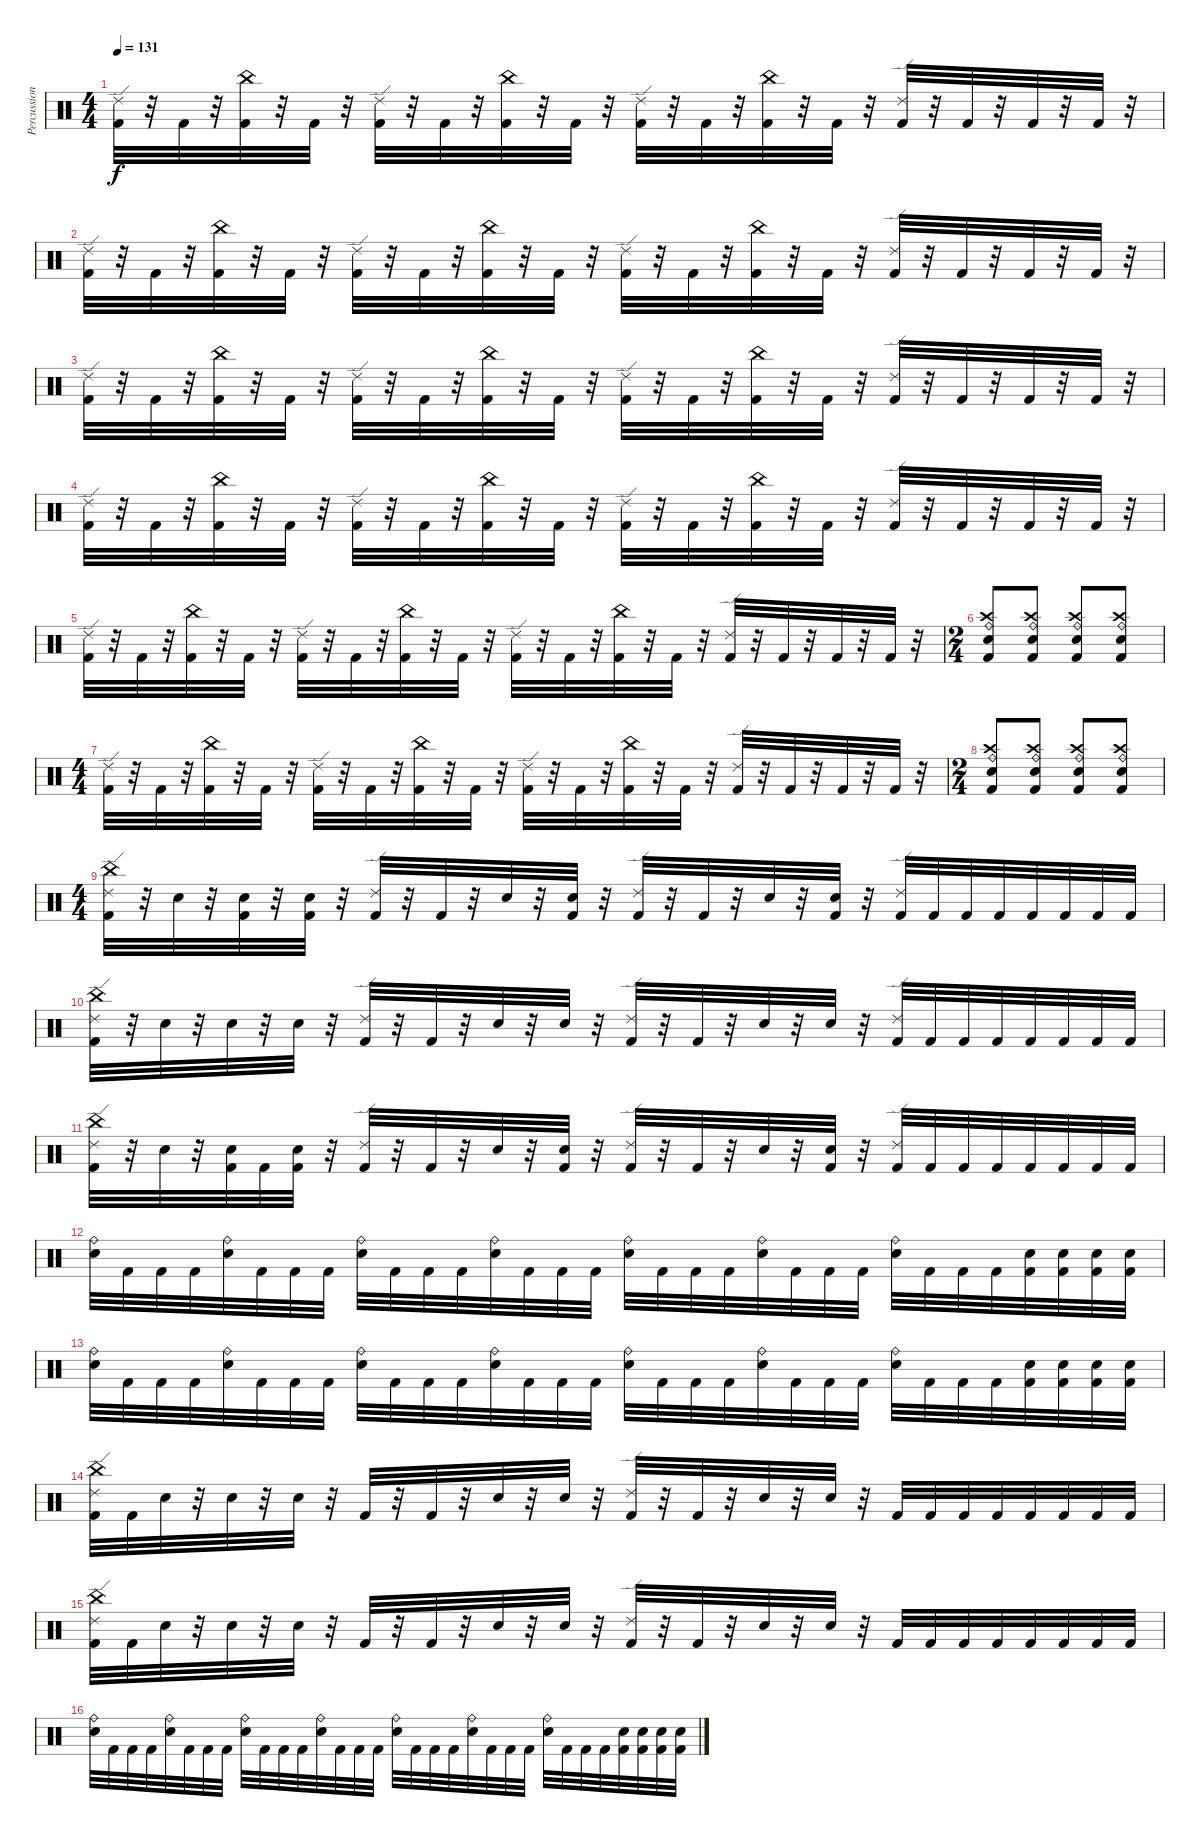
\track ("Percussion" "Percussion") {instrument percussion}
\staff {score}
\articulation defaults
\ts (4 4)
\tempo 131
\clef neutral
\ks c
("Ride (edge) 2" "Kick (hit) 2").32{dy f} r.32 "Kick (hit) 2".32 r.32 ("China (hit)" "Kick (hit) 2").32 r.32 "Kick (hit) 2".32 r.32 ("Ride (edge) 2" "Kick (hit) 2").32 r.32 "Kick (hit) 2".32 r.32 ("China (hit)" "Kick (hit) 2").32 r.32 "Kick (hit) 2".32 r.32 ("Ride (edge) 2" "Kick (hit) 2").32 r.32 "Kick (hit) 2".32 r.32 ("China (hit)" "Kick (hit) 2").32 r.32 "Kick (hit) 2".32 r.32 ("Ride (edge) 2" "Kick (hit) 2").32 r.32 "Kick (hit) 2".32 r.32 "Kick (hit) 2".32 r.32 "Kick (hit) 2".32 r.32 |
("Ride (edge) 2" "Kick (hit) 2").32 r.32 "Kick (hit) 2".32 r.32 ("China (hit)" "Kick (hit) 2").32 r.32 "Kick (hit) 2".32 r.32 ("Ride (edge) 2" "Kick (hit) 2").32 r.32 "Kick (hit) 2".32 r.32 ("China (hit)" "Kick (hit) 2").32 r.32 "Kick (hit) 2".32 r.32 ("Ride (edge) 2" "Kick (hit) 2").32 r.32 "Kick (hit) 2".32 r.32 ("China (hit)" "Kick (hit) 2").32 r.32 "Kick (hit) 2".32 r.32 ("Ride (edge) 2" "Kick (hit) 2").32 r.32 "Kick (hit) 2".32 r.32 "Kick (hit) 2".32 r.32 "Kick (hit) 2".32 r.32 |
("Ride (edge) 2" "Kick (hit) 2").32 r.32 "Kick (hit) 2".32 r.32 ("China (hit)" "Kick (hit) 2").32 r.32 "Kick (hit) 2".32 r.32 ("Ride (edge) 2" "Kick (hit) 2").32 r.32 "Kick (hit) 2".32 r.32 ("China (hit)" "Kick (hit) 2").32 r.32 "Kick (hit) 2".32 r.32 ("Ride (edge) 2" "Kick (hit) 2").32 r.32 "Kick (hit) 2".32 r.32 ("China (hit)" "Kick (hit) 2").32 r.32 "Kick (hit) 2".32 r.32 ("Ride (edge) 2" "Kick (hit) 2").32 r.32 "Kick (hit) 2".32 r.32 "Kick (hit) 2".32 r.32 "Kick (hit) 2".32 r.32 |
("Ride (edge) 2" "Kick (hit) 2").32 r.32 "Kick (hit) 2".32 r.32 ("China (hit)" "Kick (hit) 2").32 r.32 "Kick (hit) 2".32 r.32 ("Ride (edge) 2" "Kick (hit) 2").32 r.32 "Kick (hit) 2".32 r.32 ("China (hit)" "Kick (hit) 2").32 r.32 "Kick (hit) 2".32 r.32 ("Ride (edge) 2" "Kick (hit) 2").32 r.32 "Kick (hit) 2".32 r.32 ("China (hit)" "Kick (hit) 2").32 r.32 "Kick (hit) 2".32 r.32 ("Ride (edge) 2" "Kick (hit) 2").32 r.32 "Kick (hit) 2".32 r.32 "Kick (hit) 2".32 r.32 "Kick (hit) 2".32 r.32 |
("Ride (edge) 2" "Kick (hit) 2").32 r.32 "Kick (hit) 2".32 r.32 ("China (hit)" "Kick (hit) 2").32 r.32 "Kick (hit) 2".32 r.32 ("Ride (edge) 2" "Kick (hit) 2").32 r.32 "Kick (hit) 2".32 r.32 ("China (hit)" "Kick (hit) 2").32 r.32 "Kick (hit) 2".32 r.32 ("Ride (edge) 2" "Kick (hit) 2").32 r.32 "Kick (hit) 2".32 r.32 ("China (hit)" "Kick (hit) 2").32 r.32 "Kick (hit) 2".32 r.32 ("Ride (edge) 2" "Kick (hit) 2").32 r.32 "Kick (hit) 2".32 r.32 "Kick (hit) 2".32 r.32 "Kick (hit) 2".32 r.32 |
\ts (2 4)
("Crash high (hit)" "Ride (bell)" "Electric Snare (hit)" "Kick (hit) 2").8 ("Crash high (hit)" "Ride (bell)" "Electric Snare (hit)" "Kick (hit) 2").8 ("Crash high (hit)" "Ride (bell)" "Electric Snare (hit)" "Kick (hit) 2").8 ("Crash high (hit)" "Ride (bell)" "Electric Snare (hit)" "Kick (hit) 2").8 |
\ts (4 4)
("Ride (edge) 2" "Kick (hit) 2").32 r.32 "Kick (hit) 2".32 r.32 ("China (hit)" "Kick (hit) 2").32 r.32 "Kick (hit) 2".32 r.32 ("Ride (edge) 2" "Kick (hit) 2").32 r.32 "Kick (hit) 2".32 r.32 ("China (hit)" "Kick (hit) 2").32 r.32 "Kick (hit) 2".32 r.32 ("Ride (edge) 2" "Kick (hit) 2").32 r.32 "Kick (hit) 2".32 r.32 ("China (hit)" "Kick (hit) 2").32 r.32 "Kick (hit) 2".32 r.32 ("Ride (edge) 2" "Kick (hit) 2").32 r.32 "Kick (hit) 2".32 r.32 "Kick (hit) 2".32 r.32 "Kick (hit) 2".32 r.32 |
\ts (2 4)
("Crash high (hit)" "Ride (bell)" "Electric Snare (hit)" "Kick (hit) 2").8 ("Crash high (hit)" "Ride (bell)" "Electric Snare (hit)" "Kick (hit) 2").8 ("Crash high (hit)" "Ride (bell)" "Electric Snare (hit)" "Kick (hit) 2").8 ("Crash high (hit)" "Ride (bell)" "Electric Snare (hit)" "Kick (hit) 2").8 |
\ts (4 4)
("China (hit)" "Ride (edge) 2" "Kick (hit) 2").32 r.32 "Electric Snare (hit)".32 r.32 ("Electric Snare (hit)" "Kick (hit) 2").32 r.32 ("Electric Snare (hit)" "Kick (hit) 2").32 r.32 ("Ride (edge) 2" "Kick (hit) 2").32 r.32 "Kick (hit) 2".32 r.32 "Electric Snare (hit)".32 r.32 ("Electric Snare (hit)" "Kick (hit) 2").32 r.32 ("Ride (edge) 2" "Kick (hit) 2").32 r.32 "Kick (hit) 2".32 r.32 "Electric Snare (hit)".32 r.32 ("Electric Snare (hit)" "Kick (hit) 2").32 r.32 ("Ride (edge) 2" "Kick (hit) 2").32 "Kick (hit) 2".32 "Kick (hit) 2".32 "Kick (hit) 2".32 "Kick (hit) 2".32 "Kick (hit) 2".32 "Kick (hit) 2".32 "Kick (hit) 2".32 |
("China (hit)" "Ride (edge) 2" "Kick (hit) 2").32 r.32 "Electric Snare (hit)".32 r.32 "Electric Snare (hit)".32 r.32 "Electric Snare (hit)".32 r.32 ("Ride (edge) 2" "Kick (hit) 2").32 r.32 "Kick (hit) 2".32 r.32 "Electric Snare (hit)".32 r.32 "Electric Snare (hit)".32 r.32 ("Ride (edge) 2" "Kick (hit) 2").32 r.32 "Kick (hit) 2".32 r.32 "Electric Snare (hit)".32 r.32 "Electric Snare (hit)".32 r.32 ("Ride (edge) 2" "Kick (hit) 2").32 "Kick (hit) 2".32 "Kick (hit) 2".32 "Kick (hit) 2".32 "Kick (hit) 2".32 "Kick (hit) 2".32 "Kick (hit) 2".32 "Kick (hit) 2".32 |
("China (hit)" "Ride (edge) 2" "Kick (hit) 2").32 r.32 "Electric Snare (hit)".32 r.32 ("Electric Snare (hit)" "Kick (hit) 2").32 "Kick (hit) 2".32 ("Electric Snare (hit)" "Kick (hit) 2").32 r.32 ("Ride (edge) 2" "Kick (hit) 2").32 r.32 "Kick (hit) 2".32 r.32 "Electric Snare (hit)".32 r.32 ("Electric Snare (hit)" "Kick (hit) 2").32 r.32 ("Ride (edge) 2" "Kick (hit) 2").32 r.32 "Kick (hit) 2".32 r.32 "Electric Snare (hit)".32 r.32 ("Electric Snare (hit)" "Kick (hit) 2").32 r.32 ("Ride (edge) 2" "Kick (hit) 2").32 "Kick (hit) 2".32 "Kick (hit) 2".32 "Kick (hit) 2".32 "Kick (hit) 2".32 "Kick (hit) 2".32 "Kick (hit) 2".32 "Kick (hit) 2".32 |
("Ride (bell)" "Electric Snare (hit)").32 "Kick (hit) 2".32 "Kick (hit) 2".32 "Kick (hit) 2".32 ("Ride (bell)" "Electric Snare (hit)").32 "Kick (hit) 2".32 "Kick (hit) 2".32 "Kick (hit) 2".32 ("Ride (bell)" "Electric Snare (hit)").32 "Kick (hit) 2".32 "Kick (hit) 2".32 "Kick (hit) 2".32 ("Ride (bell)" "Electric Snare (hit)").32 "Kick (hit) 2".32 "Kick (hit) 2".32 "Kick (hit) 2".32 ("Ride (bell)" "Electric Snare (hit)").32 "Kick (hit) 2".32 "Kick (hit) 2".32 "Kick (hit) 2".32 ("Ride (bell)" "Electric Snare (hit)").32 "Kick (hit) 2".32 "Kick (hit) 2".32 "Kick (hit) 2".32 ("Ride (bell)" "Electric Snare (hit)").32 "Kick (hit) 2".32 "Kick (hit) 2".32 "Kick (hit) 2".32 ("Electric Snare (hit)" "Kick (hit) 2").32 ("Electric Snare (hit)" "Kick (hit) 2").32 ("Electric Snare (hit)" "Kick (hit) 2").32 ("Electric Snare (hit)" "Kick (hit) 2").32 |
("Ride (bell)" "Electric Snare (hit)").32 "Kick (hit) 2".32 "Kick (hit) 2".32 "Kick (hit) 2".32 ("Ride (bell)" "Electric Snare (hit)").32 "Kick (hit) 2".32 "Kick (hit) 2".32 "Kick (hit) 2".32 ("Ride (bell)" "Electric Snare (hit)").32 "Kick (hit) 2".32 "Kick (hit) 2".32 "Kick (hit) 2".32 ("Ride (bell)" "Electric Snare (hit)").32 "Kick (hit) 2".32 "Kick (hit) 2".32 "Kick (hit) 2".32 ("Ride (bell)" "Electric Snare (hit)").32 "Kick (hit) 2".32 "Kick (hit) 2".32 "Kick (hit) 2".32 ("Ride (bell)" "Electric Snare (hit)").32 "Kick (hit) 2".32 "Kick (hit) 2".32 "Kick (hit) 2".32 ("Ride (bell)" "Electric Snare (hit)").32 "Kick (hit) 2".32 "Kick (hit) 2".32 "Kick (hit) 2".32 ("Electric Snare (hit)" "Kick (hit) 2").32 ("Electric Snare (hit)" "Kick (hit) 2").32 ("Electric Snare (hit)" "Kick (hit) 2").32 ("Electric Snare (hit)" "Kick (hit) 2").32 |
("China (hit)" "Ride (edge) 2" "Kick (hit) 2").32 "Kick (hit) 2".32 "Electric Snare (hit)".32 r.32 "Electric Snare (hit)".32 r.32 "Electric Snare (hit)".32 r.32 "Kick (hit) 2".32 r.32 "Kick (hit) 2".32 r.32 "Electric Snare (hit)".32 r.32 "Electric Snare (hit)".32 r.32 ("Ride (edge) 2" "Kick (hit) 2").32 r.32 "Kick (hit) 2".32 r.32 "Electric Snare (hit)".32 r.32 "Electric Snare (hit)".32 r.32 "Kick (hit) 2".32 "Kick (hit) 2".32 "Kick (hit) 2".32 "Kick (hit) 2".32 "Kick (hit) 2".32 "Kick (hit) 2".32 "Kick (hit) 2".32 "Kick (hit) 2".32 |
("China (hit)" "Ride (edge) 2" "Kick (hit) 2").32 "Kick (hit) 2".32 "Electric Snare (hit)".32 r.32 "Electric Snare (hit)".32 r.32 "Electric Snare (hit)".32 r.32 "Kick (hit) 2".32 r.32 "Kick (hit) 2".32 r.32 "Electric Snare (hit)".32 r.32 "Electric Snare (hit)".32 r.32 ("Ride (edge) 2" "Kick (hit) 2").32 r.32 "Kick (hit) 2".32 r.32 "Electric Snare (hit)".32 r.32 "Electric Snare (hit)".32 r.32 "Kick (hit) 2".32 "Kick (hit) 2".32 "Kick (hit) 2".32 "Kick (hit) 2".32 "Kick (hit) 2".32 "Kick (hit) 2".32 "Kick (hit) 2".32 "Kick (hit) 2".32 |
("Ride (bell)" "Electric Snare (hit)").32 "Kick (hit) 2".32 "Kick (hit) 2".32 "Kick (hit) 2".32 ("Ride (bell)" "Electric Snare (hit)").32 "Kick (hit) 2".32 "Kick (hit) 2".32 "Kick (hit) 2".32 ("Ride (bell)" "Electric Snare (hit)").32 "Kick (hit) 2".32 "Kick (hit) 2".32 "Kick (hit) 2".32 ("Ride (bell)" "Electric Snare (hit)").32 "Kick (hit) 2".32 "Kick (hit) 2".32 "Kick (hit) 2".32 ("Ride (bell)" "Electric Snare (hit)").32 "Kick (hit) 2".32 "Kick (hit) 2".32 "Kick (hit) 2".32 ("Ride (bell)" "Electric Snare (hit)").32 "Kick (hit) 2".32 "Kick (hit) 2".32 "Kick (hit) 2".32 ("Ride (bell)" "Electric Snare (hit)").32 "Kick (hit) 2".32 "Kick (hit) 2".32 "Kick (hit) 2".32 ("Electric Snare (hit)" "Kick (hit) 2").32 ("Electric Snare (hit)" "Kick (hit) 2").32 ("Electric Snare (hit)" "Kick (hit) 2").32 ("Electric Snare (hit)" "Kick (hit) 2").32
